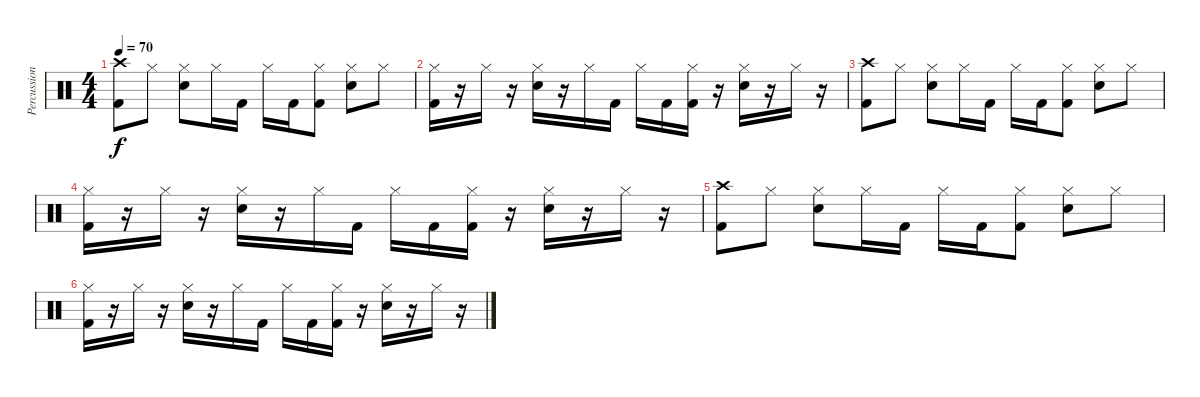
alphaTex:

\track ("Percussion" "Percussion") {instrument percussion}
\staff {score}
\articulation defaults
\ts (4 4)
\tempo 70
\clef neutral
\ks c
("Crash high (hit)" "Kick (hit) 2").8{dy f} "Hi-Hat (closed)".8 ("Hi-Hat (closed)" "Snare (hit) 2").8 "Hi-Hat (closed)".16 "Kick (hit) 2".16 "Hi-Hat (closed)".16 "Kick (hit) 2".16 ("Hi-Hat (closed)" "Kick (hit) 2").8 ("Hi-Hat (closed)" "Snare (hit) 2").8 "Hi-Hat (closed)".8 |
("Hi-Hat (closed)" "Kick (hit) 2").16 r.16 "Hi-Hat (closed)".16 r.16 ("Hi-Hat (closed)" "Snare (hit) 2").16 r.16 "Hi-Hat (closed)".16 "Kick (hit) 2".16 "Hi-Hat (closed)".16 "Kick (hit) 2".16 ("Hi-Hat (closed)" "Kick (hit) 2").16 r.16 ("Hi-Hat (closed)" "Snare (hit) 2").16 r.16 "Hi-Hat (closed)".16 r.16 |
("Crash high (hit)" "Kick (hit) 2").8 "Hi-Hat (closed)".8 ("Hi-Hat (closed)" "Snare (hit) 2").8 "Hi-Hat (closed)".16 "Kick (hit) 2".16 "Hi-Hat (closed)".16 "Kick (hit) 2".16 ("Hi-Hat (closed)" "Kick (hit) 2").8 ("Hi-Hat (closed)" "Snare (hit) 2").8 "Hi-Hat (closed)".8 |
("Hi-Hat (closed)" "Kick (hit) 2").16 r.16 "Hi-Hat (closed)".16 r.16 ("Hi-Hat (closed)" "Snare (hit) 2").16 r.16 "Hi-Hat (closed)".16 "Kick (hit) 2".16 "Hi-Hat (closed)".16 "Kick (hit) 2".16 ("Hi-Hat (closed)" "Kick (hit) 2").16 r.16 ("Hi-Hat (closed)" "Snare (hit) 2").16 r.16 "Hi-Hat (closed)".16 r.16 |
("Crash high (hit)" "Kick (hit) 2").8 "Hi-Hat (closed)".8 ("Hi-Hat (closed)" "Snare (hit) 2").8 "Hi-Hat (closed)".16 "Kick (hit) 2".16 "Hi-Hat (closed)".16 "Kick (hit) 2".16 ("Hi-Hat (closed)" "Kick (hit) 2").8 ("Hi-Hat (closed)" "Snare (hit) 2").8 "Hi-Hat (closed)".8 |
("Hi-Hat (closed)" "Kick (hit) 2").16 r.16 "Hi-Hat (closed)".16 r.16 ("Hi-Hat (closed)" "Snare (hit) 2").16 r.16 "Hi-Hat (closed)".16 "Kick (hit) 2".16 "Hi-Hat (closed)".16 "Kick (hit) 2".16 ("Hi-Hat (closed)" "Kick (hit) 2").16 r.16 ("Hi-Hat (closed)" "Snare (hit) 2").16 r.16 "Hi-Hat (closed)".16 r.16
